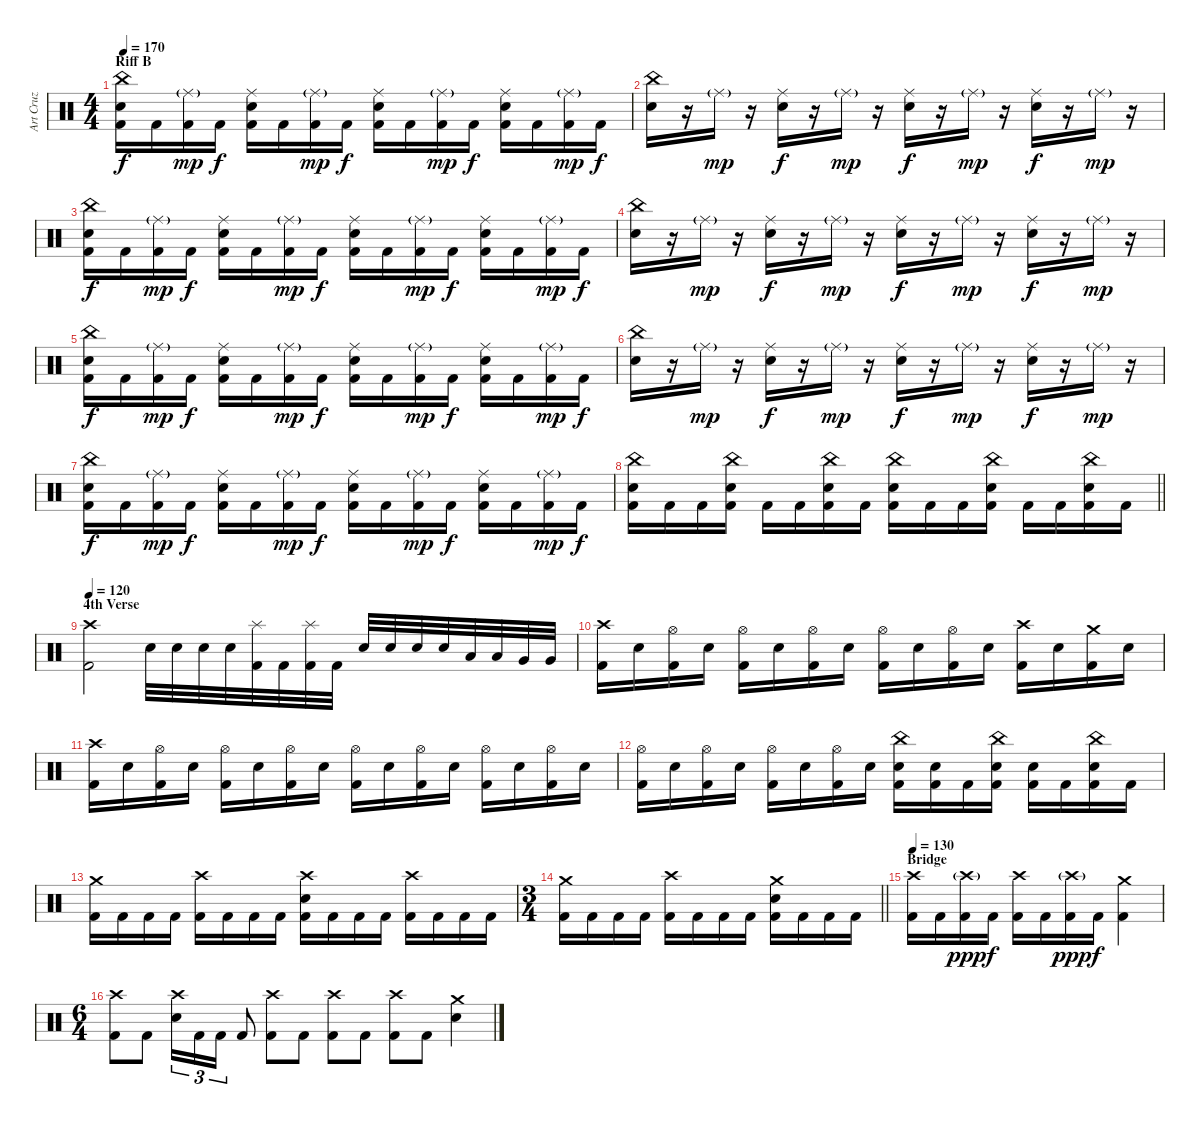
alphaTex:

\track ("Art Cruz" "Art Cruz") {instrument percussion}
\staff {score}
\articulation defaults
\ts (4 4)
\section ("" "Riff B")
\tempo 170
\clef neutral
\ks c
("China (hit)" "Snare (hit) 2" "Kick (hit) 2").16{dy f} "Kick (hit) 2".16 ("Ride (middle)"{g} "Kick (hit) 2").16{dy mp} "Kick (hit) 2".16{dy f} ("Ride (middle)" "Snare (hit) 2" "Kick (hit) 2").16 "Kick (hit) 2".16 ("Ride (middle)"{g} "Kick (hit) 2").16{dy mp} "Kick (hit) 2".16{dy f} ("Ride (middle)" "Snare (hit) 2" "Kick (hit) 2").16 "Kick (hit) 2".16 ("Ride (middle)"{g} "Kick (hit) 2").16{dy mp} "Kick (hit) 2".16{dy f} ("Ride (middle)" "Snare (hit) 2" "Kick (hit) 2").16 "Kick (hit) 2".16 ("Ride (middle)"{g} "Kick (hit) 2").16{dy mp} "Kick (hit) 2".16{dy f} |
("China (hit)" "Snare (hit) 2").16 r.16 "Ride (middle)"{g}.16{dy mp} r.16 ("Ride (middle)" "Snare (hit) 2").16{dy f} r.16 "Ride (middle)"{g}.16{dy mp} r.16 ("Ride (middle)" "Snare (hit) 2").16{dy f} r.16 "Ride (middle)"{g}.16{dy mp} r.16 ("Ride (middle)" "Snare (hit) 2").16{dy f} r.16 "Ride (middle)"{g}.16{dy mp} r.16 |
("China (hit)" "Snare (hit) 2" "Kick (hit) 2").16{dy f} "Kick (hit) 2".16 ("Ride (middle)"{g} "Kick (hit) 2").16{dy mp} "Kick (hit) 2".16{dy f} ("Ride (middle)" "Snare (hit) 2" "Kick (hit) 2").16 "Kick (hit) 2".16 ("Ride (middle)"{g} "Kick (hit) 2").16{dy mp} "Kick (hit) 2".16{dy f} ("Ride (middle)" "Snare (hit) 2" "Kick (hit) 2").16 "Kick (hit) 2".16 ("Ride (middle)"{g} "Kick (hit) 2").16{dy mp} "Kick (hit) 2".16{dy f} ("Ride (middle)" "Snare (hit) 2" "Kick (hit) 2").16 "Kick (hit) 2".16 ("Ride (middle)"{g} "Kick (hit) 2").16{dy mp} "Kick (hit) 2".16{dy f} |
("China (hit)" "Snare (hit) 2").16 r.16 "Ride (middle)"{g}.16{dy mp} r.16 ("Ride (middle)" "Snare (hit) 2").16{dy f} r.16 "Ride (middle)"{g}.16{dy mp} r.16 ("Ride (middle)" "Snare (hit) 2").16{dy f} r.16 "Ride (middle)"{g}.16{dy mp} r.16 ("Ride (middle)" "Snare (hit) 2").16{dy f} r.16 "Ride (middle)"{g}.16{dy mp} r.16 |
("China (hit)" "Snare (hit) 2" "Kick (hit) 2").16{dy f} "Kick (hit) 2".16 ("Ride (middle)"{g} "Kick (hit) 2").16{dy mp} "Kick (hit) 2".16{dy f} ("Ride (middle)" "Snare (hit) 2" "Kick (hit) 2").16 "Kick (hit) 2".16 ("Ride (middle)"{g} "Kick (hit) 2").16{dy mp} "Kick (hit) 2".16{dy f} ("Ride (middle)" "Snare (hit) 2" "Kick (hit) 2").16 "Kick (hit) 2".16 ("Ride (middle)"{g} "Kick (hit) 2").16{dy mp} "Kick (hit) 2".16{dy f} ("Ride (middle)" "Snare (hit) 2" "Kick (hit) 2").16 "Kick (hit) 2".16 ("Ride (middle)"{g} "Kick (hit) 2").16{dy mp} "Kick (hit) 2".16{dy f} |
("China (hit)" "Snare (hit) 2").16 r.16 "Ride (middle)"{g}.16{dy mp} r.16 ("Ride (middle)" "Snare (hit) 2").16{dy f} r.16 "Ride (middle)"{g}.16{dy mp} r.16 ("Ride (middle)" "Snare (hit) 2").16{dy f} r.16 "Ride (middle)"{g}.16{dy mp} r.16 ("Ride (middle)" "Snare (hit) 2").16{dy f} r.16 "Ride (middle)"{g}.16{dy mp} r.16 |
("China (hit)" "Snare (hit) 2" "Kick (hit) 2").16{dy f} "Kick (hit) 2".16 ("Ride (middle)"{g} "Kick (hit) 2").16{dy mp} "Kick (hit) 2".16{dy f} ("Ride (middle)" "Snare (hit) 2" "Kick (hit) 2").16 "Kick (hit) 2".16 ("Ride (middle)"{g} "Kick (hit) 2").16{dy mp} "Kick (hit) 2".16{dy f} ("Ride (middle)" "Snare (hit) 2" "Kick (hit) 2").16 "Kick (hit) 2".16 ("Ride (middle)"{g} "Kick (hit) 2").16{dy mp} "Kick (hit) 2".16{dy f} ("Ride (middle)" "Snare (hit) 2" "Kick (hit) 2").16 "Kick (hit) 2".16 ("Ride (middle)"{g} "Kick (hit) 2").16{dy mp} "Kick (hit) 2".16{dy f} |
\barLineRight lightlight
("China (hit)" "Snare (hit) 2" "Kick (hit) 2").16 "Kick (hit) 2".16 "Kick (hit) 2".16 ("China (hit)" "Snare (hit) 2" "Kick (hit) 2").16 "Kick (hit) 2".16 "Kick (hit) 2".16 ("China (hit)" "Snare (hit) 2" "Kick (hit) 2").16 "Kick (hit) 2".16 ("China (hit)" "Snare (hit) 2" "Kick (hit) 2").16 "Kick (hit) 2".16 "Kick (hit) 2".16 ("China (hit)" "Snare (hit) 2" "Kick (hit) 2").16 "Kick (hit) 2".16 "Kick (hit) 2".16 ("China (hit)" "Snare (hit) 2" "Kick (hit) 2").16 "Kick (hit) 2".16 |
\section ("" "4th Verse")
\tempo 120
("Crash high (hit)" "Kick (hit) 2").2 "Snare (hit) 2".32 "Snare (hit) 2".32 "Snare (hit) 2".32 "Snare (hit) 2".32 ("Splash (hit)" "Kick (hit) 2").32 "Kick (hit) 2".32 ("Splash (hit)" "Kick (hit) 2").32 "Kick (hit) 2".32 "Snare (hit) 2".32 "Snare (hit) 2".32 "Snare (hit) 2".32 "Snare (hit) 2".32 "Low Tom (hit)".32 "Low Tom (hit)".32 "Very Low Tom (hit)".32 "Very Low Tom (hit)".32 |
("Crash high (hit)" "Kick (hit) 2").16 "Snare (hit) 2".16 ("Hi-Hat (open)" "Kick (hit) 2").16 "Snare (hit) 2".16 ("Hi-Hat (open)" "Kick (hit) 2").16 "Snare (hit) 2".16 ("Hi-Hat (open)" "Kick (hit) 2").16 "Snare (hit) 2".16 ("Hi-Hat (open)" "Kick (hit) 2").16 "Snare (hit) 2".16 ("Hi-Hat (open)" "Kick (hit) 2").16 "Snare (hit) 2".16 ("Crash high (hit)" "Kick (hit) 2").16 "Snare (hit) 2".16 ("Crash medium (hit)" "Kick (hit) 2").16 "Snare (hit) 2".16 |
("Crash high (hit)" "Kick (hit) 2").16 "Snare (hit) 2".16 ("Hi-Hat (open)" "Kick (hit) 2").16 "Snare (hit) 2".16 ("Hi-Hat (open)" "Kick (hit) 2").16 "Snare (hit) 2".16 ("Hi-Hat (open)" "Kick (hit) 2").16 "Snare (hit) 2".16 ("Hi-Hat (open)" "Kick (hit) 2").16 "Snare (hit) 2".16 ("Hi-Hat (open)" "Kick (hit) 2").16 "Snare (hit) 2".16 ("Hi-Hat (open)" "Kick (hit) 2").16 "Snare (hit) 2".16 ("Hi-Hat (open)" "Kick (hit) 2").16 "Snare (hit) 2".16 |
("Hi-Hat (open)" "Kick (hit) 2").16 "Snare (hit) 2".16 ("Hi-Hat (open)" "Kick (hit) 2").16 "Snare (hit) 2".16 ("Hi-Hat (open)" "Kick (hit) 2").16 "Snare (hit) 2".16 ("Hi-Hat (open)" "Kick (hit) 2").16 "Snare (hit) 2".16 ("China (hit)" "Snare (hit) 2" "Kick (hit) 2").16 ("Snare (hit) 2" "Kick (hit) 2").16 "Kick (hit) 2".16 ("China (hit)" "Snare (hit) 2" "Kick (hit) 2").16 ("Snare (hit) 2" "Kick (hit) 2").16 "Kick (hit) 2".16 ("China (hit)" "Snare (hit) 2" "Kick (hit) 2").16 "Kick (hit) 2".16 |
("Crash medium (hit)" "Kick (hit) 2").16 "Kick (hit) 2".16 "Kick (hit) 2".16 "Kick (hit) 2".16 ("Crash high (hit)" "Kick (hit) 2").16 "Kick (hit) 2".16 "Kick (hit) 2".16 "Kick (hit) 2".16 ("Crash high (hit)" "Snare (hit) 2" "Kick (hit) 2").16 "Kick (hit) 2".16 "Kick (hit) 2".16 "Kick (hit) 2".16 ("Crash high (hit)" "Kick (hit) 2").16 "Kick (hit) 2".16 "Kick (hit) 2".16 "Kick (hit) 2".16 |
\ts (3 4)
\barLineRight lightlight
("Crash medium (hit)" "Kick (hit) 2").16 "Kick (hit) 2".16 "Kick (hit) 2".16 "Kick (hit) 2".16 ("Crash high (hit)" "Kick (hit) 2").16 "Kick (hit) 2".16 "Kick (hit) 2".16 "Kick (hit) 2".16 ("Crash medium (hit)" "Snare (hit) 2" "Kick (hit) 2").16 "Kick (hit) 2".16 "Kick (hit) 2".16 "Kick (hit) 2".16 |
\section ("" "Bridge")
\tempo 130
("Crash high (hit)" "Kick (hit) 2").16 "Kick (hit) 2".16 ("Crash high (hit)"{g} "Kick (hit) 2").16{dy ppp} "Kick (hit) 2".16{dy f} ("Crash high (hit)" "Kick (hit) 2").16 "Kick (hit) 2".16 ("Crash high (hit)"{g} "Kick (hit) 2").16{dy ppp} "Kick (hit) 2".16{dy f} ("Crash medium (hit)" "Kick (hit) 2").4 |
\ts (6 4)
("Crash high (hit)" "Kick (hit) 2").8 "Kick (hit) 2".8 ("Crash high (hit)" "Snare (hit) 2").16{tu (3 2)} "Kick (hit) 2".16{tu (3 2)} "Kick (hit) 2".16{tu (3 2)} "Kick (hit) 2".8 ("Crash high (hit)" "Kick (hit) 2").8 "Kick (hit) 2".8 ("Crash high (hit)" "Kick (hit) 2").8 "Kick (hit) 2".8 ("Crash high (hit)" "Kick (hit) 2").8 "Kick (hit) 2".8 ("Crash medium (hit)" "Snare (hit) 2").4
